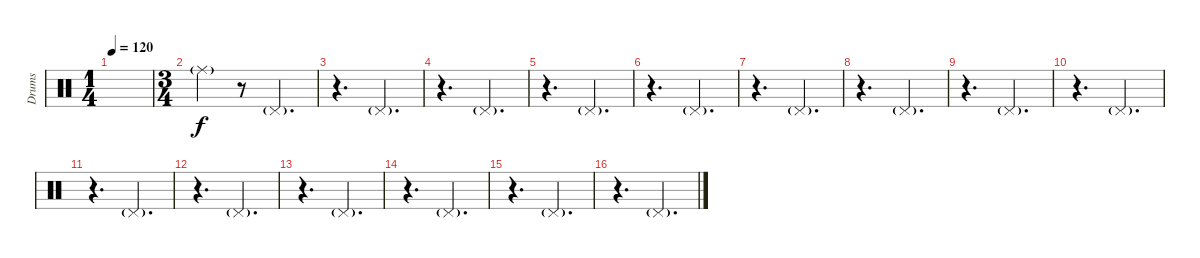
\track ("Drums" "Drums") {instrument percussion}
\staff {score}
\articulation defaults
\ts (1 4)
\tempo 120
\clef neutral
\ks c
|
\ts (3 4)
"Ride (middle)"{g}.4 r.8 "Pedal Hi-Hat (hit)"{g}.4{d} |
r.4{d} "Pedal Hi-Hat (hit)"{g}.4{d} |
r.4{d} "Pedal Hi-Hat (hit)"{g}.4{d} |
r.4{d} "Pedal Hi-Hat (hit)"{g}.4{d} |
r.4{d} "Pedal Hi-Hat (hit)"{g}.4{d} |
r.4{d} "Pedal Hi-Hat (hit)"{g}.4{d} |
r.4{d} "Pedal Hi-Hat (hit)"{g}.4{d} |
r.4{d} "Pedal Hi-Hat (hit)"{g}.4{d} |
r.4{d} "Pedal Hi-Hat (hit)"{g}.4{d} |
r.4{d} "Pedal Hi-Hat (hit)"{g}.4{d} |
r.4{d} "Pedal Hi-Hat (hit)"{g}.4{d} |
r.4{d} "Pedal Hi-Hat (hit)"{g}.4{d} |
r.4{d} "Pedal Hi-Hat (hit)"{g}.4{d} |
r.4{d} "Pedal Hi-Hat (hit)"{g}.4{d} |
r.4{d} "Pedal Hi-Hat (hit)"{g}.4{d}
